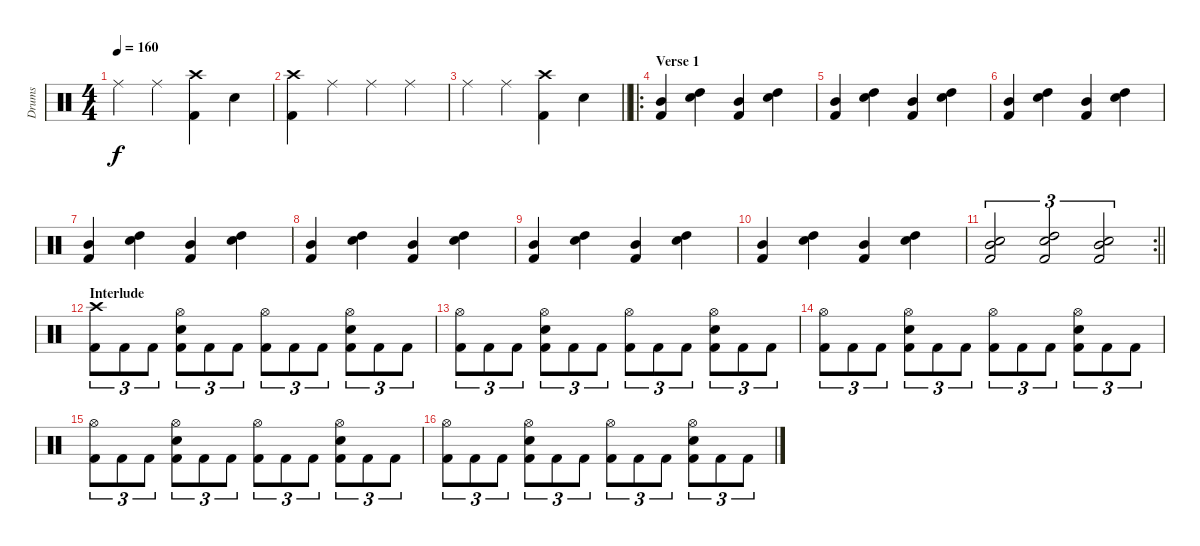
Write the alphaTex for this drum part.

\track ("Drums" "Drums") {instrument percussion}
\staff {score}
\articulation defaults
\ts (4 4)
\tempo 160
\clef neutral
\ks c "Ride (middle)".4{dy f} "Ride (middle)".4
("Crash high (hit)" "Kick (hit) 2").4 "Snare (hit) 2".4 |
("Crash high (hit)" "Kick (hit) 2").4 "Ride (middle)".4 "Ride (middle)".4 "Ride (middle)".4 |
\barLineRight lightlight "Ride (middle)".4 "Ride (middle)".4
("Crash high (hit)" "Kick (hit) 2").4 "Snare (hit) 2".4 |
\ro
\section ("" "Verse 1")
("Mid Tom (hit)" "Kick (hit) 2").4 ("High Tom (hit)" "Snare (hit) 2").4 ("Mid Tom (hit)" "Kick (hit) 2").4 ("High Tom (hit)" "Snare (hit) 2").4 |
("Mid Tom (hit)" "Kick (hit) 2").4 ("High Tom (hit)" "Snare (hit) 2").4 ("Mid Tom (hit)" "Kick (hit) 2").4 ("High Tom (hit)" "Snare (hit) 2").4 |
("Mid Tom (hit)" "Kick (hit) 2").4 ("High Tom (hit)" "Snare (hit) 2").4 ("Mid Tom (hit)" "Kick (hit) 2").4 ("High Tom (hit)" "Snare (hit) 2").4 |
("Mid Tom (hit)" "Kick (hit) 2").4 ("High Tom (hit)" "Snare (hit) 2").4 ("Mid Tom (hit)" "Kick (hit) 2").4 ("High Tom (hit)" "Snare (hit) 2").4 |
("Mid Tom (hit)" "Kick (hit) 2").4 ("High Tom (hit)" "Snare (hit) 2").4 ("Mid Tom (hit)" "Kick (hit) 2").4 ("High Tom (hit)" "Snare (hit) 2").4 |
("Mid Tom (hit)" "Kick (hit) 2").4 ("High Tom (hit)" "Snare (hit) 2").4 ("Mid Tom (hit)" "Kick (hit) 2").4 ("High Tom (hit)" "Snare (hit) 2").4 |
("Mid Tom (hit)" "Kick (hit) 2").4 ("High Tom (hit)" "Snare (hit) 2").4 ("Mid Tom (hit)" "Kick (hit) 2").4 ("High Tom (hit)" "Snare (hit) 2").4 |
\rc 2
\barLineRight lightlight
("Mid Tom (hit)" "Snare (hit) 2" "Kick (hit) 2").2{tu (3 2)} ("High Tom (hit)" "Snare (hit) 2" "Kick (hit) 2").2{tu (3 2)} ("Mid Tom (hit)" "Snare (hit) 2" "Kick (hit) 2").2{tu (3 2)} |
\section ("" "Interlude")
("Crash high (hit)" "Kick (hit) 2").8{tu (3 2)} "Kick (hit) 2".8{tu (3 2)} "Kick (hit) 2".8{tu (3 2)} ("Hi-Hat (open)" "Snare (hit) 2" "Kick (hit) 2").8{tu (3 2)} "Kick (hit) 2".8{tu (3 2)} "Kick (hit) 2".8{tu (3 2)} ("Hi-Hat (open)" "Kick (hit) 2").8{tu (3 2)} "Kick (hit) 2".8{tu (3 2)} "Kick (hit) 2".8{tu (3 2)} ("Hi-Hat (open)" "Snare (hit) 2" "Kick (hit) 2").8{tu (3 2)} "Kick (hit) 2".8{tu (3 2)} "Kick (hit) 2".8{tu (3 2)} |
("Hi-Hat (open)" "Kick (hit) 2").8{tu (3 2)} "Kick (hit) 2".8{tu (3 2)} "Kick (hit) 2".8{tu (3 2)} ("Hi-Hat (open)" "Snare (hit) 2" "Kick (hit) 2").8{tu (3 2)} "Kick (hit) 2".8{tu (3 2)} "Kick (hit) 2".8{tu (3 2)} ("Hi-Hat (open)" "Kick (hit) 2").8{tu (3 2)} "Kick (hit) 2".8{tu (3 2)} "Kick (hit) 2".8{tu (3 2)} ("Hi-Hat (open)" "Snare (hit) 2" "Kick (hit) 2").8{tu (3 2)} "Kick (hit) 2".8{tu (3 2)} "Kick (hit) 2".8{tu (3 2)} |
("Hi-Hat (open)" "Kick (hit) 2").8{tu (3 2)} "Kick (hit) 2".8{tu (3 2)} "Kick (hit) 2".8{tu (3 2)} ("Hi-Hat (open)" "Snare (hit) 2" "Kick (hit) 2").8{tu (3 2)} "Kick (hit) 2".8{tu (3 2)} "Kick (hit) 2".8{tu (3 2)} ("Hi-Hat (open)" "Kick (hit) 2").8{tu (3 2)} "Kick (hit) 2".8{tu (3 2)} "Kick (hit) 2".8{tu (3 2)} ("Hi-Hat (open)" "Snare (hit) 2" "Kick (hit) 2").8{tu (3 2)} "Kick (hit) 2".8{tu (3 2)} "Kick (hit) 2".8{tu (3 2)} |
("Hi-Hat (open)" "Kick (hit) 2").8{tu (3 2)} "Kick (hit) 2".8{tu (3 2)} "Kick (hit) 2".8{tu (3 2)} ("Hi-Hat (open)" "Snare (hit) 2" "Kick (hit) 2").8{tu (3 2)} "Kick (hit) 2".8{tu (3 2)} "Kick (hit) 2".8{tu (3 2)} ("Hi-Hat (open)" "Kick (hit) 2").8{tu (3 2)} "Kick (hit) 2".8{tu (3 2)} "Kick (hit) 2".8{tu (3 2)} ("Hi-Hat (open)" "Snare (hit) 2" "Kick (hit) 2").8{tu (3 2)} "Kick (hit) 2".8{tu (3 2)} "Kick (hit) 2".8{tu (3 2)} |
("Hi-Hat (open)" "Kick (hit) 2").8{tu (3 2)} "Kick (hit) 2".8{tu (3 2)} "Kick (hit) 2".8{tu (3 2)} ("Hi-Hat (open)" "Snare (hit) 2" "Kick (hit) 2").8{tu (3 2)} "Kick (hit) 2".8{tu (3 2)} "Kick (hit) 2".8{tu (3 2)} ("Hi-Hat (open)" "Kick (hit) 2").8{tu (3 2)} "Kick (hit) 2".8{tu (3 2)} "Kick (hit) 2".8{tu (3 2)} ("Hi-Hat (open)" "Snare (hit) 2" "Kick (hit) 2").8{tu (3 2)} "Kick (hit) 2".8{tu (3 2)} "Kick (hit) 2".8{tu (3 2)}
